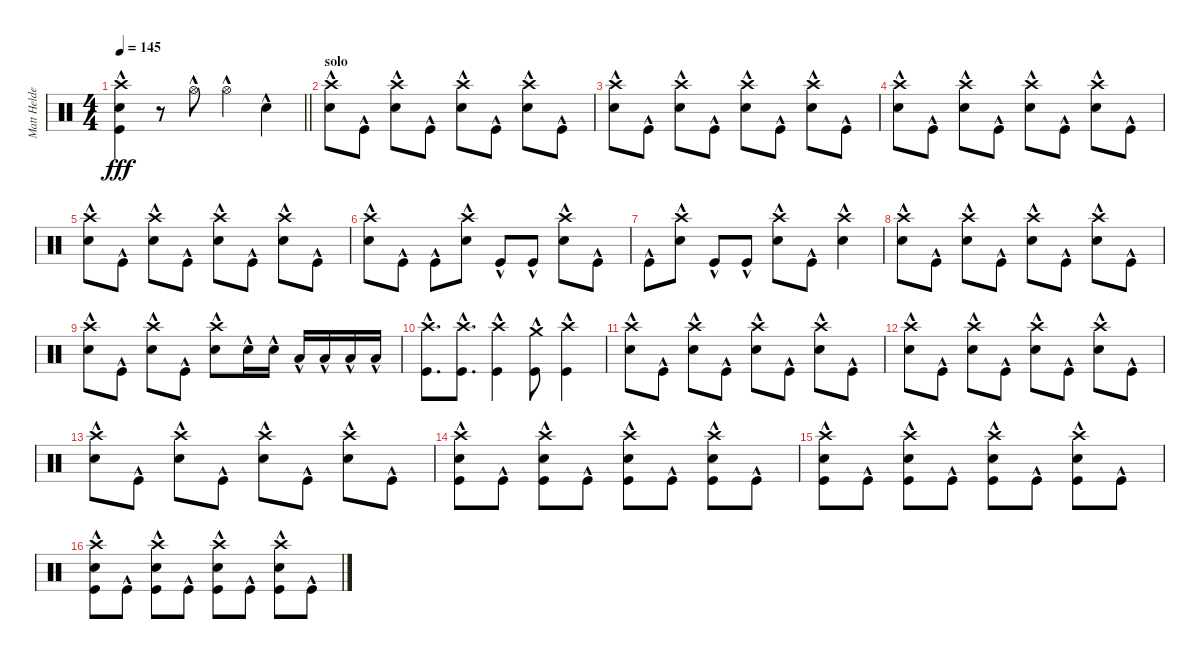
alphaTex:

\track ("Matt Helders - Drums" "Matt Helde") {instrument percussion}
\staff {score}
\articulation defaults
\ts (4 4)
\tempo 145
\clef neutral
\barLineRight lightlight
\ks c
("Crash high (hit)"{hac} "Snare (hit) 2"{hac} "Kick (hit)"{hac}).4{dy fff} r.8 "Hi-Hat (open)"{hac}.8 "Hi-Hat (open)"{hac}.4 "Snare (hit) 2"{hac}.4 |
\section ("" "solo")
("Crash high (hit)"{hac} "Snare (hit) 2"{hac}).8 "Kick (hit)"{hac}.8 ("Crash high (hit)"{hac} "Snare (hit) 2"{hac}).8 "Kick (hit)"{hac}.8 ("Crash high (hit)"{hac} "Snare (hit) 2"{hac}).8 "Kick (hit)"{hac}.8 ("Crash high (hit)"{hac} "Snare (hit) 2"{hac}).8 "Kick (hit)"{hac}.8 |
("Crash high (hit)"{hac} "Snare (hit) 2"{hac}).8 "Kick (hit)"{hac}.8 ("Crash high (hit)"{hac} "Snare (hit) 2"{hac}).8 "Kick (hit)"{hac}.8 ("Crash high (hit)"{hac} "Snare (hit) 2"{hac}).8 "Kick (hit)"{hac}.8 ("Crash high (hit)"{hac} "Snare (hit) 2"{hac}).8 "Kick (hit)"{hac}.8 |
("Crash high (hit)"{hac} "Snare (hit) 2"{hac}).8 "Kick (hit)"{hac}.8 ("Crash high (hit)"{hac} "Snare (hit) 2"{hac}).8 "Kick (hit)"{hac}.8 ("Crash high (hit)"{hac} "Snare (hit) 2"{hac}).8 "Kick (hit)"{hac}.8 ("Crash high (hit)"{hac} "Snare (hit) 2"{hac}).8 "Kick (hit)"{hac}.8 |
("Crash high (hit)"{hac} "Snare (hit) 2"{hac}).8 "Kick (hit)"{hac}.8 ("Crash high (hit)"{hac} "Snare (hit) 2"{hac}).8 "Kick (hit)"{hac}.8 ("Crash high (hit)"{hac} "Snare (hit) 2"{hac}).8 "Kick (hit)"{hac}.8 ("Crash high (hit)"{hac} "Snare (hit) 2"{hac}).8 "Kick (hit)"{hac}.8 |
("Crash high (hit)"{hac} "Snare (hit) 2"{hac}).8 "Kick (hit)"{hac}.8 "Kick (hit)"{hac}.8 ("Crash high (hit)"{hac} "Snare (hit) 2"{hac}).8 "Kick (hit)"{hac}.8 "Kick (hit)"{hac}.8 ("Crash high (hit)"{hac} "Snare (hit) 2"{hac}).8 "Kick (hit)"{hac}.8 |
"Kick (hit)"{hac}.8 ("Crash high (hit)"{hac} "Snare (hit) 2"{hac}).8 "Kick (hit)"{hac}.8 "Kick (hit)"{hac}.8 ("Crash high (hit)"{hac} "Snare (hit) 2"{hac}).8 "Kick (hit)"{hac}.8 ("Crash high (hit)"{hac} "Snare (hit) 2"{hac}).4 |
("Crash high (hit)"{hac} "Snare (hit) 2"{hac}).8 "Kick (hit)"{hac}.8 ("Crash high (hit)"{hac} "Snare (hit) 2"{hac}).8 "Kick (hit)"{hac}.8 ("Crash high (hit)"{hac} "Snare (hit) 2"{hac}).8 "Kick (hit)"{hac}.8 ("Crash high (hit)"{hac} "Snare (hit) 2"{hac}).8 "Kick (hit)"{hac}.8 |
("Crash high (hit)"{hac} "Snare (hit) 2"{hac}).8 "Kick (hit)"{hac}.8 ("Crash high (hit)"{hac} "Snare (hit) 2"{hac}).8 "Kick (hit)"{hac}.8 ("Crash high (hit)"{hac} "Snare (hit) 2"{hac}).8 "Snare (hit) 2"{hac}.16 "Snare (hit) 2"{hac}.16 "Low Tom (hit)"{hac}.16 "Low Tom (hit)"{hac}.16 "Low Floor Tom (hit)"{hac}.16 "Low Floor Tom (hit)"{hac}.16 |
("Crash high (hit)"{hac} "Kick (hit)"{hac}).8{d} ("Crash high (hit)"{hac} "Kick (hit)"{hac}).8{d} ("Crash high (hit)"{hac} "Kick (hit)"{hac}).4 ("Crash medium (hit)"{hac} "Kick (hit)"{hac}).8 ("Crash high (hit)"{hac} "Kick (hit)"{hac}).4 |
("Crash high (hit)"{hac} "Snare (hit) 2"{hac}).8 "Kick (hit)"{hac}.8 ("Crash high (hit)"{hac} "Snare (hit) 2"{hac}).8 "Kick (hit)"{hac}.8 ("Crash high (hit)"{hac} "Snare (hit) 2"{hac}).8 "Kick (hit)"{hac}.8 ("Crash high (hit)"{hac} "Snare (hit) 2"{hac}).8 "Kick (hit)"{hac}.8 |
("Crash high (hit)"{hac} "Snare (hit) 2"{hac}).8 "Kick (hit)"{hac}.8 ("Crash high (hit)"{hac} "Snare (hit) 2"{hac}).8 "Kick (hit)"{hac}.8 ("Crash high (hit)"{hac} "Snare (hit) 2"{hac}).8 "Kick (hit)"{hac}.8 ("Crash high (hit)"{hac} "Snare (hit) 2"{hac}).8 "Kick (hit)"{hac}.8 |
("Crash high (hit)"{hac} "Snare (hit) 2"{hac}).8 "Kick (hit)"{hac}.8 ("Crash high (hit)"{hac} "Snare (hit) 2"{hac}).8 "Kick (hit)"{hac}.8 ("Crash high (hit)"{hac} "Snare (hit) 2"{hac}).8 "Kick (hit)"{hac}.8 ("Crash high (hit)"{hac} "Snare (hit) 2"{hac}).8 "Kick (hit)"{hac}.8 |
("Crash high (hit)"{hac} "Snare (hit) 2"{hac} "Kick (hit)"{hac}).8 "Kick (hit)"{hac}.8 ("Crash high (hit)"{hac} "Snare (hit) 2"{hac} "Kick (hit)"{hac}).8 "Kick (hit)"{hac}.8 ("Crash high (hit)"{hac} "Snare (hit) 2"{hac} "Kick (hit)"{hac}).8 "Kick (hit)"{hac}.8 ("Crash high (hit)"{hac} "Snare (hit) 2"{hac} "Kick (hit)"{hac}).8 "Kick (hit)"{hac}.8 |
("Crash high (hit)"{hac} "Snare (hit) 2"{hac} "Kick (hit)"{hac}).8 "Kick (hit)"{hac}.8 ("Crash high (hit)"{hac} "Snare (hit) 2"{hac} "Kick (hit)"{hac}).8 "Kick (hit)"{hac}.8 ("Crash high (hit)"{hac} "Snare (hit) 2"{hac} "Kick (hit)"{hac}).8 "Kick (hit)"{hac}.8 ("Crash high (hit)"{hac} "Snare (hit) 2"{hac} "Kick (hit)"{hac}).8 "Kick (hit)"{hac}.8 |
("Crash high (hit)"{hac} "Snare (hit) 2"{hac} "Kick (hit)"{hac}).8 "Kick (hit)"{hac}.8 ("Crash high (hit)"{hac} "Snare (hit) 2"{hac} "Kick (hit)"{hac}).8 "Kick (hit)"{hac}.8 ("Crash high (hit)"{hac} "Snare (hit) 2"{hac} "Kick (hit)"{hac}).8 "Kick (hit)"{hac}.8 ("Crash high (hit)"{hac} "Snare (hit) 2"{hac} "Kick (hit)"{hac}).8 "Kick (hit)"{hac}.8
